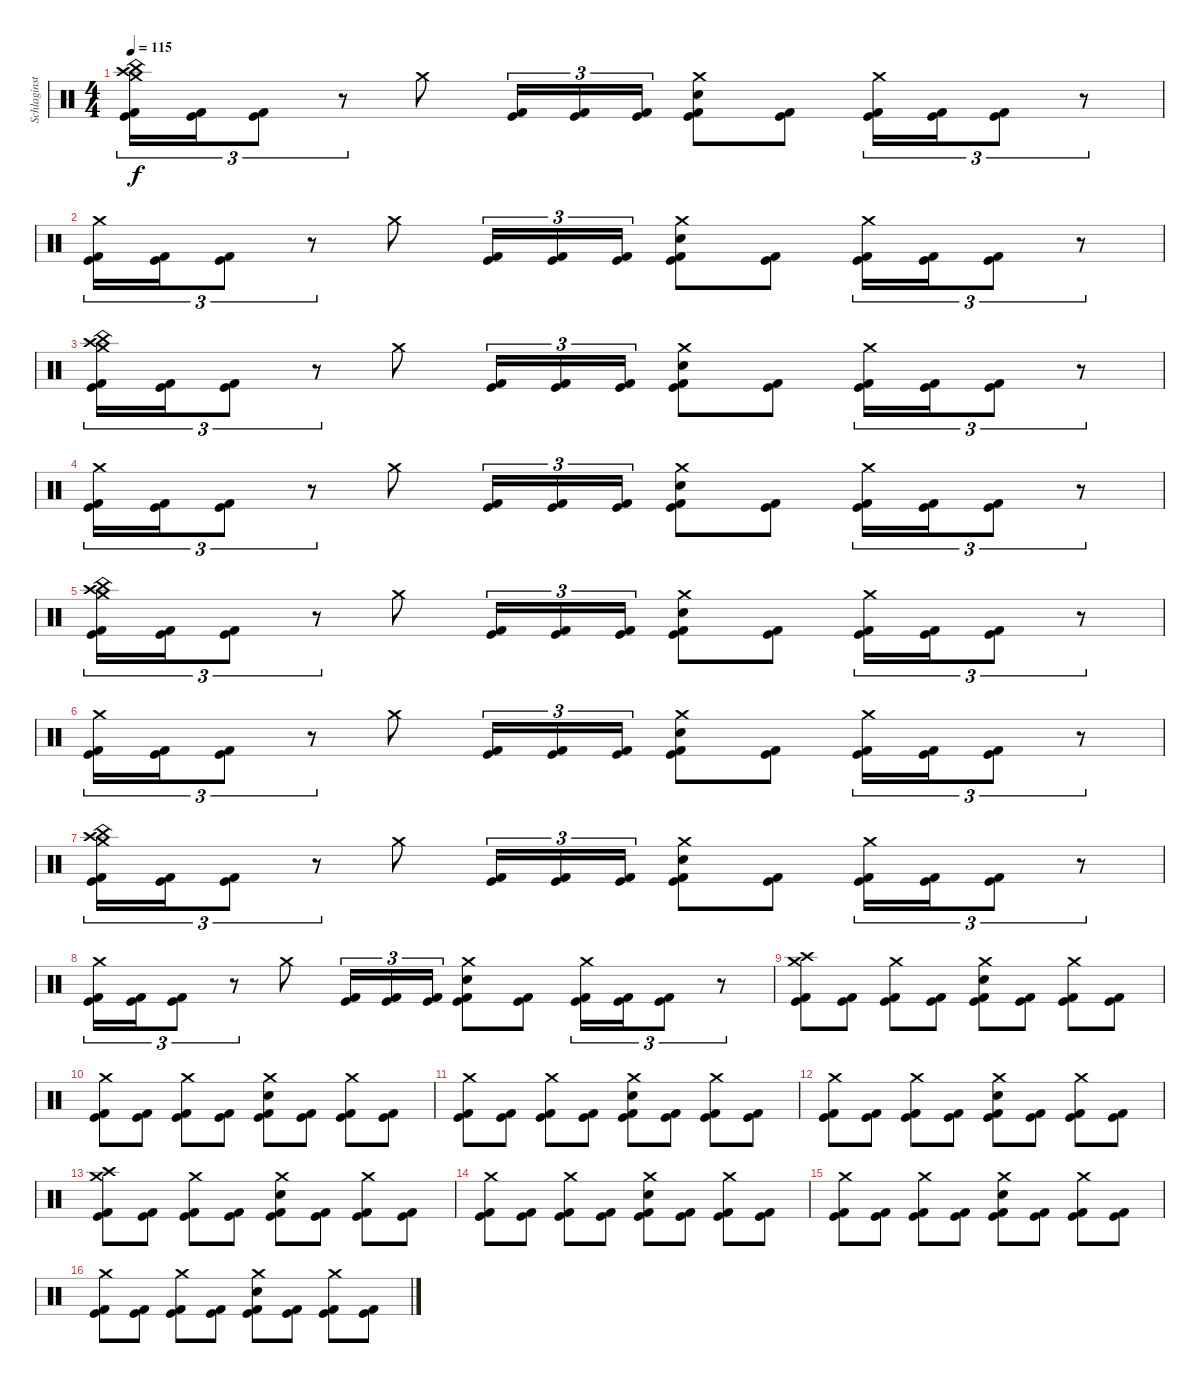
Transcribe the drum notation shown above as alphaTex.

\track ("Schlaginstrumente - Auswahl" "Schlaginst") {instrument percussion}
\staff {score}
\articulation defaults
\ts (4 4)
\tempo 115
\clef neutral
\ks c
("Crash medium (hit)" "Crash high (hit)" "China (hit)" "Kick (hit) 2" "Kick (hit)").16{tu (3 2) dy f volume 15} ("Kick (hit) 2" "Kick (hit)").16{tu (3 2)} ("Kick (hit) 2" "Kick (hit)").8{tu (3 2)} r.8{tu (3 2)} "Crash medium (hit)".8 ("Kick (hit) 2" "Kick (hit)").16{tu (3 2)} ("Kick (hit) 2" "Kick (hit)").16{tu (3 2)} ("Kick (hit) 2" "Kick (hit)").16{tu (3 2)} ("Crash medium (hit)" "Electric Snare (hit)" "Kick (hit) 2" "Kick (hit)").8 ("Kick (hit) 2" "Kick (hit)").8 ("Crash medium (hit)" "Kick (hit) 2" "Kick (hit)").16{tu (3 2)} ("Kick (hit) 2" "Kick (hit)").16{tu (3 2)} ("Kick (hit) 2" "Kick (hit)").8{tu (3 2)} r.8{tu (3 2)} |
("Crash medium (hit)" "Kick (hit) 2" "Kick (hit)").16{tu (3 2)} ("Kick (hit) 2" "Kick (hit)").16{tu (3 2)} ("Kick (hit) 2" "Kick (hit)").8{tu (3 2)} r.8{tu (3 2)} "Crash medium (hit)".8 ("Kick (hit) 2" "Kick (hit)").16{tu (3 2)} ("Kick (hit) 2" "Kick (hit)").16{tu (3 2)} ("Kick (hit) 2" "Kick (hit)").16{tu (3 2)} ("Crash medium (hit)" "Electric Snare (hit)" "Kick (hit) 2" "Kick (hit)").8 ("Kick (hit) 2" "Kick (hit)").8 ("Crash medium (hit)" "Kick (hit) 2" "Kick (hit)").16{tu (3 2)} ("Kick (hit) 2" "Kick (hit)").16{tu (3 2)} ("Kick (hit) 2" "Kick (hit)").8{tu (3 2)} r.8{tu (3 2)} |
("Crash medium (hit)" "Crash high (hit)" "China (hit)" "Kick (hit) 2" "Kick (hit)").16{tu (3 2)} ("Kick (hit) 2" "Kick (hit)").16{tu (3 2)} ("Kick (hit) 2" "Kick (hit)").8{tu (3 2)} r.8{tu (3 2)} "Crash medium (hit)".8 ("Kick (hit) 2" "Kick (hit)").16{tu (3 2)} ("Kick (hit) 2" "Kick (hit)").16{tu (3 2)} ("Kick (hit) 2" "Kick (hit)").16{tu (3 2)} ("Crash medium (hit)" "Electric Snare (hit)" "Kick (hit) 2" "Kick (hit)").8 ("Kick (hit) 2" "Kick (hit)").8 ("Crash medium (hit)" "Kick (hit) 2" "Kick (hit)").16{tu (3 2)} ("Kick (hit) 2" "Kick (hit)").16{tu (3 2)} ("Kick (hit) 2" "Kick (hit)").8{tu (3 2)} r.8{tu (3 2)} |
("Crash medium (hit)" "Kick (hit) 2" "Kick (hit)").16{tu (3 2)} ("Kick (hit) 2" "Kick (hit)").16{tu (3 2)} ("Kick (hit) 2" "Kick (hit)").8{tu (3 2)} r.8{tu (3 2)} "Crash medium (hit)".8 ("Kick (hit) 2" "Kick (hit)").16{tu (3 2)} ("Kick (hit) 2" "Kick (hit)").16{tu (3 2)} ("Kick (hit) 2" "Kick (hit)").16{tu (3 2)} ("Crash medium (hit)" "Electric Snare (hit)" "Kick (hit) 2" "Kick (hit)").8 ("Kick (hit) 2" "Kick (hit)").8 ("Crash medium (hit)" "Kick (hit) 2" "Kick (hit)").16{tu (3 2)} ("Kick (hit) 2" "Kick (hit)").16{tu (3 2)} ("Kick (hit) 2" "Kick (hit)").8{tu (3 2)} r.8{tu (3 2)} |
("Crash medium (hit)" "Crash high (hit)" "China (hit)" "Kick (hit) 2" "Kick (hit)").16{tu (3 2)} ("Kick (hit) 2" "Kick (hit)").16{tu (3 2)} ("Kick (hit) 2" "Kick (hit)").8{tu (3 2)} r.8{tu (3 2)} "Crash medium (hit)".8 ("Kick (hit) 2" "Kick (hit)").16{tu (3 2)} ("Kick (hit) 2" "Kick (hit)").16{tu (3 2)} ("Kick (hit) 2" "Kick (hit)").16{tu (3 2)} ("Crash medium (hit)" "Electric Snare (hit)" "Kick (hit) 2" "Kick (hit)").8 ("Kick (hit) 2" "Kick (hit)").8 ("Crash medium (hit)" "Kick (hit) 2" "Kick (hit)").16{tu (3 2)} ("Kick (hit) 2" "Kick (hit)").16{tu (3 2)} ("Kick (hit) 2" "Kick (hit)").8{tu (3 2)} r.8{tu (3 2)} |
("Crash medium (hit)" "Kick (hit) 2" "Kick (hit)").16{tu (3 2)} ("Kick (hit) 2" "Kick (hit)").16{tu (3 2)} ("Kick (hit) 2" "Kick (hit)").8{tu (3 2)} r.8{tu (3 2)} "Crash medium (hit)".8 ("Kick (hit) 2" "Kick (hit)").16{tu (3 2)} ("Kick (hit) 2" "Kick (hit)").16{tu (3 2)} ("Kick (hit) 2" "Kick (hit)").16{tu (3 2)} ("Crash medium (hit)" "Electric Snare (hit)" "Kick (hit) 2" "Kick (hit)").8 ("Kick (hit) 2" "Kick (hit)").8 ("Crash medium (hit)" "Kick (hit) 2" "Kick (hit)").16{tu (3 2)} ("Kick (hit) 2" "Kick (hit)").16{tu (3 2)} ("Kick (hit) 2" "Kick (hit)").8{tu (3 2)} r.8{tu (3 2)} |
("Crash medium (hit)" "Crash high (hit)" "China (hit)" "Kick (hit) 2" "Kick (hit)").16{tu (3 2)} ("Kick (hit) 2" "Kick (hit)").16{tu (3 2)} ("Kick (hit) 2" "Kick (hit)").8{tu (3 2)} r.8{tu (3 2)} "Crash medium (hit)".8 ("Kick (hit) 2" "Kick (hit)").16{tu (3 2)} ("Kick (hit) 2" "Kick (hit)").16{tu (3 2)} ("Kick (hit) 2" "Kick (hit)").16{tu (3 2)} ("Crash medium (hit)" "Electric Snare (hit)" "Kick (hit) 2" "Kick (hit)").8 ("Kick (hit) 2" "Kick (hit)").8 ("Crash medium (hit)" "Kick (hit) 2" "Kick (hit)").16{tu (3 2)} ("Kick (hit) 2" "Kick (hit)").16{tu (3 2)} ("Kick (hit) 2" "Kick (hit)").8{tu (3 2)} r.8{tu (3 2)} |
("Crash medium (hit)" "Kick (hit) 2" "Kick (hit)").16{tu (3 2)} ("Kick (hit) 2" "Kick (hit)").16{tu (3 2)} ("Kick (hit) 2" "Kick (hit)").8{tu (3 2)} r.8{tu (3 2)} "Crash medium (hit)".8 ("Kick (hit) 2" "Kick (hit)").16{tu (3 2)} ("Kick (hit) 2" "Kick (hit)").16{tu (3 2)} ("Kick (hit) 2" "Kick (hit)").16{tu (3 2)} ("Crash medium (hit)" "Electric Snare (hit)" "Kick (hit) 2" "Kick (hit)").8 ("Kick (hit) 2" "Kick (hit)").8 ("Crash medium (hit)" "Kick (hit) 2" "Kick (hit)").16{tu (3 2)} ("Kick (hit) 2" "Kick (hit)").16{tu (3 2)} ("Kick (hit) 2" "Kick (hit)").8{tu (3 2)} r.8{tu (3 2)} |
("Crash medium (hit)" "Crash high (hit)" "Kick (hit) 2" "Kick (hit)").8 ("Kick (hit) 2" "Kick (hit)").8 ("Crash medium (hit)" "Kick (hit) 2" "Kick (hit)").8 ("Kick (hit) 2" "Kick (hit)").8 ("Crash medium (hit)" "Electric Snare (hit)" "Kick (hit) 2" "Kick (hit)").8 ("Kick (hit) 2" "Kick (hit)").8 ("Crash medium (hit)" "Kick (hit) 2" "Kick (hit)").8 ("Kick (hit) 2" "Kick (hit)").8 |
("Crash medium (hit)" "Kick (hit) 2" "Kick (hit)").8 ("Kick (hit) 2" "Kick (hit)").8 ("Crash medium (hit)" "Kick (hit) 2" "Kick (hit)").8 ("Kick (hit) 2" "Kick (hit)").8 ("Crash medium (hit)" "Electric Snare (hit)" "Kick (hit) 2" "Kick (hit)").8 ("Kick (hit) 2" "Kick (hit)").8 ("Crash medium (hit)" "Kick (hit) 2" "Kick (hit)").8 ("Kick (hit) 2" "Kick (hit)").8 |
("Crash medium (hit)" "Kick (hit) 2" "Kick (hit)").8 ("Kick (hit) 2" "Kick (hit)").8 ("Crash medium (hit)" "Kick (hit) 2" "Kick (hit)").8 ("Kick (hit) 2" "Kick (hit)").8 ("Crash medium (hit)" "Electric Snare (hit)" "Kick (hit) 2" "Kick (hit)").8 ("Kick (hit) 2" "Kick (hit)").8 ("Crash medium (hit)" "Kick (hit) 2" "Kick (hit)").8 ("Kick (hit) 2" "Kick (hit)").8 |
("Crash medium (hit)" "Kick (hit) 2" "Kick (hit)").8 ("Kick (hit) 2" "Kick (hit)").8 ("Crash medium (hit)" "Kick (hit) 2" "Kick (hit)").8 ("Kick (hit) 2" "Kick (hit)").8 ("Crash medium (hit)" "Electric Snare (hit)" "Kick (hit) 2" "Kick (hit)").8 ("Kick (hit) 2" "Kick (hit)").8 ("Crash medium (hit)" "Kick (hit) 2" "Kick (hit)").8 ("Kick (hit) 2" "Kick (hit)").8 |
("Crash medium (hit)" "Crash high (hit)" "Kick (hit) 2" "Kick (hit)").8 ("Kick (hit) 2" "Kick (hit)").8 ("Crash medium (hit)" "Kick (hit) 2" "Kick (hit)").8 ("Kick (hit) 2" "Kick (hit)").8 ("Crash medium (hit)" "Electric Snare (hit)" "Kick (hit) 2" "Kick (hit)").8 ("Kick (hit) 2" "Kick (hit)").8 ("Crash medium (hit)" "Kick (hit) 2" "Kick (hit)").8 ("Kick (hit) 2" "Kick (hit)").8 |
("Crash medium (hit)" "Kick (hit) 2" "Kick (hit)").8 ("Kick (hit) 2" "Kick (hit)").8 ("Crash medium (hit)" "Kick (hit) 2" "Kick (hit)").8 ("Kick (hit) 2" "Kick (hit)").8 ("Crash medium (hit)" "Electric Snare (hit)" "Kick (hit) 2" "Kick (hit)").8 ("Kick (hit) 2" "Kick (hit)").8 ("Crash medium (hit)" "Kick (hit) 2" "Kick (hit)").8 ("Kick (hit) 2" "Kick (hit)").8 |
("Crash medium (hit)" "Kick (hit) 2" "Kick (hit)").8 ("Kick (hit) 2" "Kick (hit)").8 ("Crash medium (hit)" "Kick (hit) 2" "Kick (hit)").8 ("Kick (hit) 2" "Kick (hit)").8 ("Crash medium (hit)" "Electric Snare (hit)" "Kick (hit) 2" "Kick (hit)").8 ("Kick (hit) 2" "Kick (hit)").8 ("Crash medium (hit)" "Kick (hit) 2" "Kick (hit)").8 ("Kick (hit) 2" "Kick (hit)").8 |
("Crash medium (hit)" "Kick (hit) 2" "Kick (hit)").8 ("Kick (hit) 2" "Kick (hit)").8 ("Crash medium (hit)" "Kick (hit) 2" "Kick (hit)").8 ("Kick (hit) 2" "Kick (hit)").8 ("Crash medium (hit)" "Electric Snare (hit)" "Kick (hit) 2" "Kick (hit)").8 ("Kick (hit) 2" "Kick (hit)").8 ("Crash medium (hit)" "Kick (hit) 2" "Kick (hit)").8 ("Kick (hit) 2" "Kick (hit)").8
